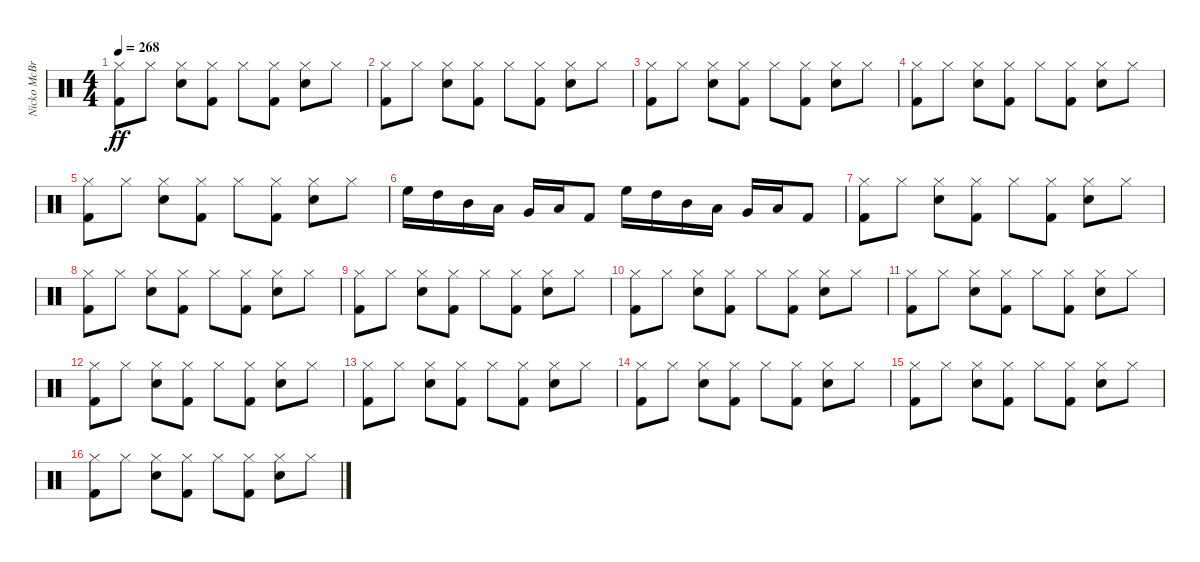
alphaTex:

\track ("Nicko McBrain" "Nicko McBr") {instrument percussion}
\staff {score}
\articulation defaults
\ts (4 4)
\tempo 268
\clef neutral
\ks c
("Kick (hit) 2" "Hi-Hat (closed)").8{dy ff} "Hi-Hat (closed)".8 ("Snare (hit) 2" "Hi-Hat (closed)").8 ("Kick (hit) 2" "Hi-Hat (closed)").8 "Hi-Hat (closed)".8 ("Kick (hit) 2" "Hi-Hat (closed)").8 ("Snare (hit) 2" "Hi-Hat (closed)").8 "Hi-Hat (closed)".8 |
("Kick (hit) 2" "Hi-Hat (closed)").8 "Hi-Hat (closed)".8 ("Snare (hit) 2" "Hi-Hat (closed)").8 ("Kick (hit) 2" "Hi-Hat (closed)").8 "Hi-Hat (closed)".8 ("Kick (hit) 2" "Hi-Hat (closed)").8 ("Snare (hit) 2" "Hi-Hat (closed)").8 "Hi-Hat (closed)".8 |
("Kick (hit) 2" "Hi-Hat (closed)").8 "Hi-Hat (closed)".8 ("Snare (hit) 2" "Hi-Hat (closed)").8 ("Kick (hit) 2" "Hi-Hat (closed)").8 "Hi-Hat (closed)".8 ("Kick (hit) 2" "Hi-Hat (closed)").8 ("Snare (hit) 2" "Hi-Hat (closed)").8 "Hi-Hat (closed)".8 |
("Kick (hit) 2" "Hi-Hat (closed)").8 "Hi-Hat (closed)".8 ("Snare (hit) 2" "Hi-Hat (closed)").8 ("Kick (hit) 2" "Hi-Hat (closed)").8 "Hi-Hat (closed)".8 ("Kick (hit) 2" "Hi-Hat (closed)").8 ("Snare (hit) 2" "Hi-Hat (closed)").8 "Hi-Hat (closed)".8 |
("Kick (hit) 2" "Hi-Hat (closed)").8 "Hi-Hat (closed)".8 ("Snare (hit) 2" "Hi-Hat (closed)").8 ("Kick (hit) 2" "Hi-Hat (closed)").8 "Hi-Hat (closed)".8 ("Kick (hit) 2" "Hi-Hat (closed)").8 ("Snare (hit) 2" "Hi-Hat (closed)").8 "Hi-Hat (closed)".8 |
"High Floor Tom (hit)".16 "High Tom (hit)".16 "Mid Tom (hit)".16 "Low Tom (hit)".16 "Very Low Tom (hit)".16 "Low Floor Tom (hit)".16 "Kick (hit) 2".8 "High Floor Tom (hit)".16 "High Tom (hit)".16 "Mid Tom (hit)".16 "Low Tom (hit)".16 "Very Low Tom (hit)".16 "Low Floor Tom (hit)".16 "Kick (hit) 2".8 |
("Kick (hit) 2" "Hi-Hat (closed)").8 "Hi-Hat (closed)".8 ("Snare (hit) 2" "Hi-Hat (closed)").8 ("Kick (hit) 2" "Hi-Hat (closed)").8 "Hi-Hat (closed)".8 ("Kick (hit) 2" "Hi-Hat (closed)").8 ("Snare (hit) 2" "Hi-Hat (closed)").8 "Hi-Hat (closed)".8 |
("Kick (hit) 2" "Hi-Hat (closed)").8 "Hi-Hat (closed)".8 ("Snare (hit) 2" "Hi-Hat (closed)").8 ("Kick (hit) 2" "Hi-Hat (closed)").8 "Hi-Hat (closed)".8 ("Kick (hit) 2" "Hi-Hat (closed)").8 ("Snare (hit) 2" "Hi-Hat (closed)").8 "Hi-Hat (closed)".8 |
("Kick (hit) 2" "Hi-Hat (closed)").8 "Hi-Hat (closed)".8 ("Snare (hit) 2" "Hi-Hat (closed)").8 ("Kick (hit) 2" "Hi-Hat (closed)").8 "Hi-Hat (closed)".8 ("Kick (hit) 2" "Hi-Hat (closed)").8 ("Snare (hit) 2" "Hi-Hat (closed)").8 "Hi-Hat (closed)".8 |
("Kick (hit) 2" "Hi-Hat (closed)").8 "Hi-Hat (closed)".8 ("Snare (hit) 2" "Hi-Hat (closed)").8 ("Kick (hit) 2" "Hi-Hat (closed)").8 "Hi-Hat (closed)".8 ("Kick (hit) 2" "Hi-Hat (closed)").8 ("Snare (hit) 2" "Hi-Hat (closed)").8 "Hi-Hat (closed)".8 |
("Kick (hit) 2" "Hi-Hat (closed)").8 "Hi-Hat (closed)".8 ("Snare (hit) 2" "Hi-Hat (closed)").8 ("Kick (hit) 2" "Hi-Hat (closed)").8 "Hi-Hat (closed)".8 ("Kick (hit) 2" "Hi-Hat (closed)").8 ("Snare (hit) 2" "Hi-Hat (closed)").8 "Hi-Hat (closed)".8 |
("Kick (hit) 2" "Hi-Hat (closed)").8 "Hi-Hat (closed)".8 ("Snare (hit) 2" "Hi-Hat (closed)").8 ("Kick (hit) 2" "Hi-Hat (closed)").8 "Hi-Hat (closed)".8 ("Kick (hit) 2" "Hi-Hat (closed)").8 ("Snare (hit) 2" "Hi-Hat (closed)").8 "Hi-Hat (closed)".8 |
("Kick (hit) 2" "Hi-Hat (closed)").8 "Hi-Hat (closed)".8 ("Snare (hit) 2" "Hi-Hat (closed)").8 ("Kick (hit) 2" "Hi-Hat (closed)").8 "Hi-Hat (closed)".8 ("Kick (hit) 2" "Hi-Hat (closed)").8 ("Snare (hit) 2" "Hi-Hat (closed)").8 "Hi-Hat (closed)".8 |
("Kick (hit) 2" "Hi-Hat (closed)").8 "Hi-Hat (closed)".8 ("Snare (hit) 2" "Hi-Hat (closed)").8 ("Kick (hit) 2" "Hi-Hat (closed)").8 "Hi-Hat (closed)".8 ("Kick (hit) 2" "Hi-Hat (closed)").8 ("Snare (hit) 2" "Hi-Hat (closed)").8 "Hi-Hat (closed)".8 |
("Kick (hit) 2" "Hi-Hat (closed)").8 "Hi-Hat (closed)".8 ("Snare (hit) 2" "Hi-Hat (closed)").8 ("Kick (hit) 2" "Hi-Hat (closed)").8 "Hi-Hat (closed)".8 ("Kick (hit) 2" "Hi-Hat (closed)").8 ("Snare (hit) 2" "Hi-Hat (closed)").8 "Hi-Hat (closed)".8 |
("Kick (hit) 2" "Hi-Hat (closed)").8 "Hi-Hat (closed)".8 ("Snare (hit) 2" "Hi-Hat (closed)").8 ("Kick (hit) 2" "Hi-Hat (closed)").8 "Hi-Hat (closed)".8 ("Kick (hit) 2" "Hi-Hat (closed)").8 ("Snare (hit) 2" "Hi-Hat (closed)").8 "Hi-Hat (closed)".8
